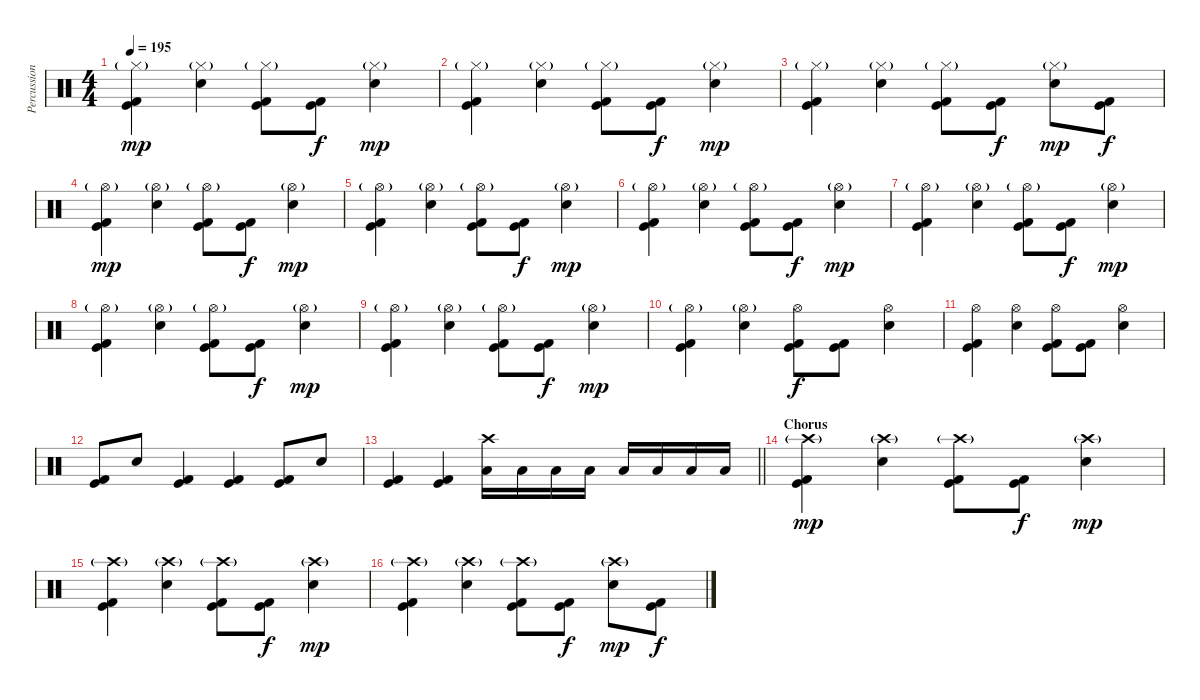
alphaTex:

\track ("Percussion" "Percussion") {instrument percussion}
\staff {score}
\articulation defaults
\ts (4 4)
\tempo 195
\clef neutral
\ks c
("Hi-Hat (closed)"{g} "Kick (hit) 2" "Kick (hit)").4{dy mp} ("Hi-Hat (closed)"{g} "Snare (hit) 2").4 ("Hi-Hat (closed)"{g} "Kick (hit) 2" "Kick (hit)").8 ("Kick (hit) 2" "Kick (hit)").8{dy f} ("Hi-Hat (closed)"{g} "Snare (hit) 2").4{dy mp} |
("Hi-Hat (closed)"{g} "Kick (hit) 2" "Kick (hit)").4 ("Hi-Hat (closed)"{g} "Snare (hit) 2").4 ("Hi-Hat (closed)"{g} "Kick (hit) 2" "Kick (hit)").8 ("Kick (hit) 2" "Kick (hit)").8{dy f} ("Hi-Hat (closed)"{g} "Snare (hit) 2").4{dy mp} |
("Hi-Hat (closed)"{g} "Kick (hit) 2" "Kick (hit)").4 ("Hi-Hat (closed)"{g} "Snare (hit) 2").4 ("Hi-Hat (closed)"{g} "Kick (hit) 2" "Kick (hit)").8 ("Kick (hit) 2" "Kick (hit)").8{dy f} ("Hi-Hat (closed)"{g} "Snare (hit) 2").8{dy mp} ("Kick (hit) 2" "Kick (hit)").8{dy f} |
("Hi-Hat (open)"{g} "Kick (hit) 2" "Kick (hit)").4{dy mp} ("Hi-Hat (open)"{g} "Snare (hit) 2").4 ("Hi-Hat (open)"{g} "Kick (hit) 2" "Kick (hit)").8 ("Kick (hit) 2" "Kick (hit)").8{dy f} ("Hi-Hat (open)"{g} "Snare (hit) 2").4{dy mp} |
("Hi-Hat (open)"{g} "Kick (hit) 2" "Kick (hit)").4 ("Hi-Hat (open)"{g} "Snare (hit) 2").4 ("Hi-Hat (open)"{g} "Kick (hit) 2" "Kick (hit)").8 ("Kick (hit) 2" "Kick (hit)").8{dy f} ("Hi-Hat (open)"{g} "Snare (hit) 2").4{dy mp} |
("Hi-Hat (open)"{g} "Kick (hit) 2" "Kick (hit)").4 ("Hi-Hat (open)"{g} "Snare (hit) 2").4 ("Hi-Hat (open)"{g} "Kick (hit) 2" "Kick (hit)").8 ("Kick (hit) 2" "Kick (hit)").8{dy f} ("Hi-Hat (open)"{g} "Snare (hit) 2").4{dy mp} |
("Hi-Hat (open)"{g} "Kick (hit) 2" "Kick (hit)").4 ("Hi-Hat (open)"{g} "Snare (hit) 2").4 ("Hi-Hat (open)"{g} "Kick (hit) 2" "Kick (hit)").8 ("Kick (hit) 2" "Kick (hit)").8{dy f} ("Hi-Hat (open)"{g} "Snare (hit) 2").4{dy mp} |
("Hi-Hat (open)"{g} "Kick (hit) 2" "Kick (hit)").4 ("Hi-Hat (open)"{g} "Snare (hit) 2").4 ("Hi-Hat (open)"{g} "Kick (hit) 2" "Kick (hit)").8 ("Kick (hit) 2" "Kick (hit)").8{dy f} ("Hi-Hat (open)"{g} "Snare (hit) 2").4{dy mp} |
("Hi-Hat (open)"{g} "Kick (hit) 2" "Kick (hit)").4 ("Hi-Hat (open)"{g} "Snare (hit) 2").4 ("Hi-Hat (open)"{g} "Kick (hit) 2" "Kick (hit)").8 ("Kick (hit) 2" "Kick (hit)").8{dy f} ("Hi-Hat (open)"{g} "Snare (hit) 2").4{dy mp} |
("Hi-Hat (open)"{g} "Kick (hit) 2" "Kick (hit)").4 ("Hi-Hat (open)"{g} "Snare (hit) 2").4 ("Hi-Hat (open)" "Kick (hit) 2" "Kick (hit)").8{dy f} ("Kick (hit) 2" "Kick (hit)").8 ("Hi-Hat (open)" "Snare (hit) 2").4 |
("Hi-Hat (open)" "Kick (hit) 2" "Kick (hit)").4 ("Hi-Hat (open)" "Snare (hit) 2").4 ("Hi-Hat (open)" "Kick (hit) 2" "Kick (hit)").8 ("Kick (hit) 2" "Kick (hit)").8 ("Hi-Hat (open)" "Snare (hit) 2").4 |
("Kick (hit) 2" "Kick (hit)").8 "Snare (hit) 2".8 ("Kick (hit) 2" "Kick (hit)").4 ("Kick (hit) 2" "Kick (hit)").4 ("Kick (hit)" "Kick (hit) 2").8 "Snare (hit) 2".8 |
\barLineRight lightlight
("Kick (hit) 2" "Kick (hit)").4 ("Kick (hit) 2" "Kick (hit)").4 ("Crash high (hit)" "Low Tom (hit)").16 "Low Tom (hit)".16 "Low Tom (hit)".16 "Low Tom (hit)".16 "Low Floor Tom (hit)".16 "Low Floor Tom (hit)".16 "Low Floor Tom (hit)".16 "Low Floor Tom (hit)".16 |
\section ("" "Chorus")
("Crash high (hit)"{g} "Kick (hit) 2" "Kick (hit)").4{dy mp} ("Crash high (hit)"{g} "Electric Snare (hit)").4 ("Crash high (hit)"{g} "Kick (hit) 2" "Kick (hit)").8 ("Kick (hit) 2" "Kick (hit)").8{dy f} ("Crash high (hit)"{g} "Electric Snare (hit)").4{dy mp} |
("Crash high (hit)"{g} "Kick (hit) 2" "Kick (hit)").4 ("Crash high (hit)"{g} "Electric Snare (hit)").4 ("Crash high (hit)"{g} "Kick (hit) 2" "Kick (hit)").8 ("Kick (hit) 2" "Kick (hit)").8{dy f} ("Crash high (hit)"{g} "Electric Snare (hit)").4{dy mp} |
("Crash high (hit)"{g} "Kick (hit) 2" "Kick (hit)").4 ("Crash high (hit)"{g} "Electric Snare (hit)").4 ("Crash high (hit)"{g} "Kick (hit) 2" "Kick (hit)").8 ("Kick (hit) 2" "Kick (hit)").8{dy f} ("Crash high (hit)"{g} "Electric Snare (hit)").8{dy mp} ("Kick (hit)" "Kick (hit) 2").8{dy f}
